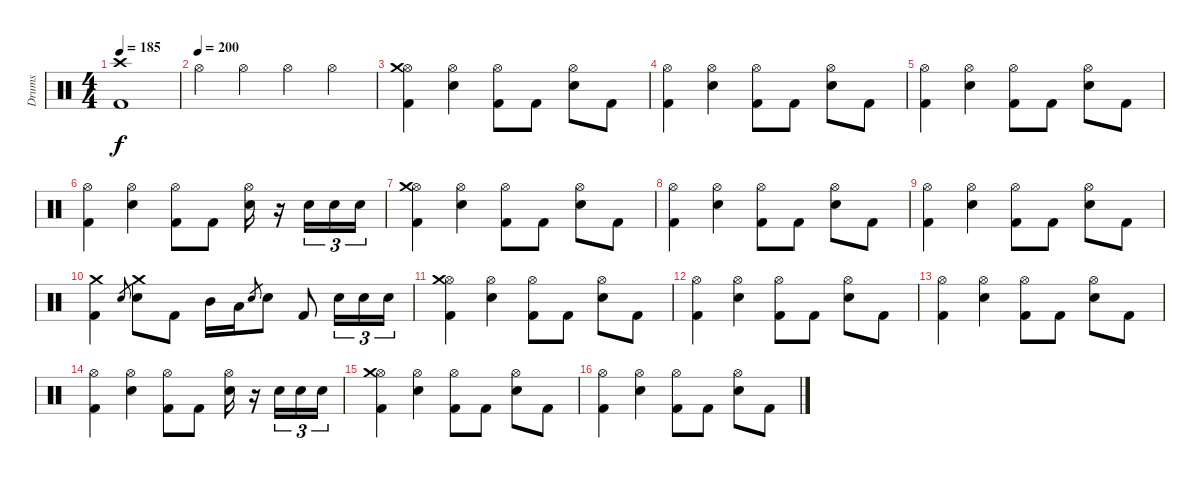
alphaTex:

\track ("Drums" "Drums") {instrument percussion}
\staff {score}
\articulation defaults
\ts (4 4)
\tempo 185
\clef neutral
\ks c
("Crash high (hit)" "Kick (hit) 2").1{dy f} |
\tempo (200)
"Hi-Hat (open)".4 "Hi-Hat (open)".4 "Hi-Hat (open)".4 "Hi-Hat (open)".4 |
("Hi-Hat (open)" "Crash medium (hit)" "Kick (hit) 2").4 ("Hi-Hat (open)" "Snare (hit) 2").4 ("Hi-Hat (open)" "Kick (hit) 2").8 "Kick (hit) 2".8 ("Hi-Hat (open)" "Snare (hit) 2").8 "Kick (hit) 2".8 |
("Hi-Hat (open)" "Kick (hit) 2").4 ("Hi-Hat (open)" "Snare (hit) 2").4 ("Hi-Hat (open)" "Kick (hit) 2").8 "Kick (hit) 2".8 ("Hi-Hat (open)" "Snare (hit) 2").8 "Kick (hit) 2".8 |
("Hi-Hat (open)" "Kick (hit) 2").4 ("Hi-Hat (open)" "Snare (hit) 2").4 ("Hi-Hat (open)" "Kick (hit) 2").8 "Kick (hit) 2".8 ("Hi-Hat (open)" "Snare (hit) 2").8 "Kick (hit) 2".8 |
("Hi-Hat (open)" "Kick (hit) 2").4 ("Hi-Hat (open)" "Snare (hit) 2").4 ("Hi-Hat (open)" "Kick (hit) 2").8 "Kick (hit) 2".8 ("Hi-Hat (open)" "Snare (hit) 2").16 r.16 "Snare (hit) 2".16{tu (3 2)} "Snare (hit) 2".16{tu (3 2)} "Snare (hit) 2".16{tu (3 2)} |
("Hi-Hat (open)" "Crash medium (hit)" "Kick (hit) 2").4 ("Hi-Hat (open)" "Snare (hit) 2").4 ("Hi-Hat (open)" "Kick (hit) 2").8 "Kick (hit) 2".8 ("Hi-Hat (open)" "Snare (hit) 2").8 "Kick (hit) 2".8 |
("Hi-Hat (open)" "Kick (hit) 2").4 ("Hi-Hat (open)" "Snare (hit) 2").4 ("Hi-Hat (open)" "Kick (hit) 2").8 "Kick (hit) 2".8 ("Hi-Hat (open)" "Snare (hit) 2").8 "Kick (hit) 2".8 |
("Hi-Hat (open)" "Kick (hit) 2").4 ("Hi-Hat (open)" "Snare (hit) 2").4 ("Hi-Hat (open)" "Kick (hit) 2").8 "Kick (hit) 2".8 ("Hi-Hat (open)" "Snare (hit) 2").8 "Kick (hit) 2".8 |
("Crash medium (hit)" "Kick (hit) 2").4 "Snare (hit) 2".8{gr} ("Crash medium (hit)" "Snare (hit) 2").8 "Kick (hit) 2".8 "Mid Tom (hit)".16 "Low Tom (hit)".16 "Snare (hit) 2".8{gr} "Snare (hit) 2".8 "Kick (hit) 2".8 "Snare (hit) 2".16{tu (3 2)} "Snare (hit) 2".16{tu (3 2)} "Snare (hit) 2".16{tu (3 2)} |
("Hi-Hat (open)" "Crash medium (hit)" "Kick (hit) 2").4 ("Hi-Hat (open)" "Snare (hit) 2").4 ("Hi-Hat (open)" "Kick (hit) 2").8 "Kick (hit) 2".8 ("Hi-Hat (open)" "Snare (hit) 2").8 "Kick (hit) 2".8 |
("Hi-Hat (open)" "Kick (hit) 2").4 ("Hi-Hat (open)" "Snare (hit) 2").4 ("Hi-Hat (open)" "Kick (hit) 2").8 "Kick (hit) 2".8 ("Hi-Hat (open)" "Snare (hit) 2").8 "Kick (hit) 2".8 |
("Hi-Hat (open)" "Kick (hit) 2").4 ("Hi-Hat (open)" "Snare (hit) 2").4 ("Hi-Hat (open)" "Kick (hit) 2").8 "Kick (hit) 2".8 ("Hi-Hat (open)" "Snare (hit) 2").8 "Kick (hit) 2".8 |
("Hi-Hat (open)" "Kick (hit) 2").4 ("Hi-Hat (open)" "Snare (hit) 2").4 ("Hi-Hat (open)" "Kick (hit) 2").8 "Kick (hit) 2".8 ("Hi-Hat (open)" "Snare (hit) 2").16 r.16 "Snare (hit) 2".16{tu (3 2)} "Snare (hit) 2".16{tu (3 2)} "Snare (hit) 2".16{tu (3 2)} |
("Hi-Hat (open)" "Crash medium (hit)" "Kick (hit) 2").4 ("Hi-Hat (open)" "Snare (hit) 2").4 ("Hi-Hat (open)" "Kick (hit) 2").8 "Kick (hit) 2".8 ("Hi-Hat (open)" "Snare (hit) 2").8 "Kick (hit) 2".8 |
("Hi-Hat (open)" "Kick (hit) 2").4 ("Hi-Hat (open)" "Snare (hit) 2").4 ("Hi-Hat (open)" "Kick (hit) 2").8 "Kick (hit) 2".8 ("Hi-Hat (open)" "Snare (hit) 2").8 "Kick (hit) 2".8
